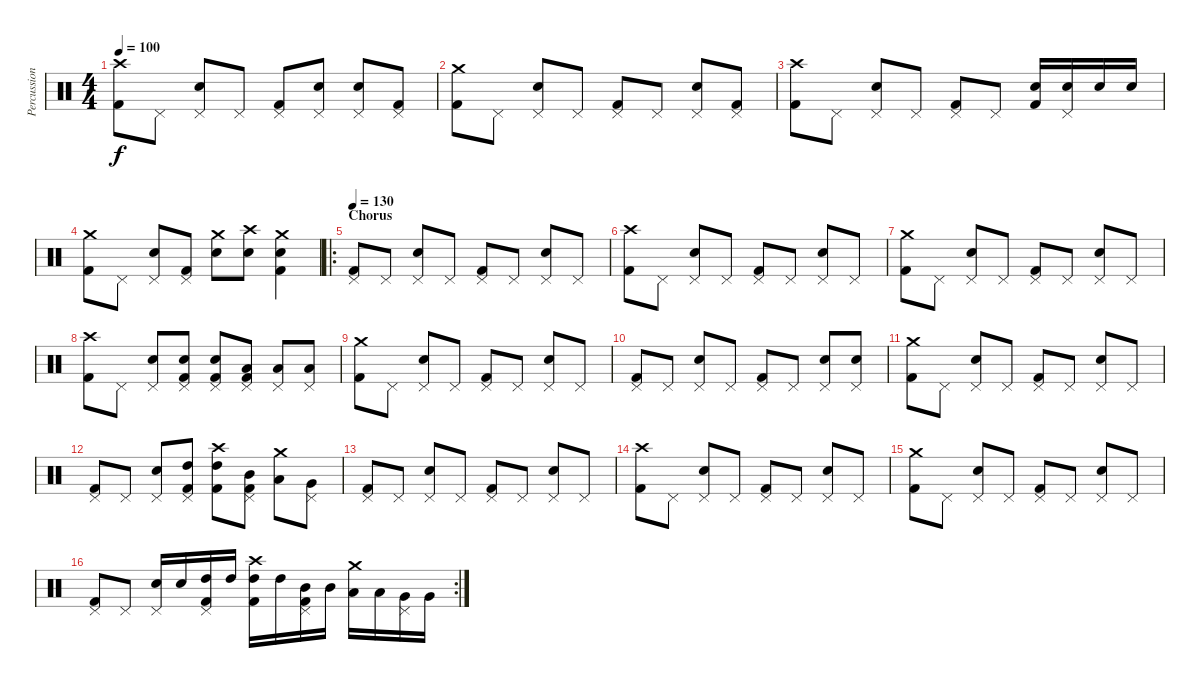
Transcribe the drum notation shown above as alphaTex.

\track ("Percussion" "Percussion") {instrument percussion}
\staff {score}
\articulation defaults
\ts (4 4)
\tempo 100
\clef neutral
\ks c
("Crash high (hit)" "Kick (hit) 2").8{dy f} "Pedal Hi-Hat (hit)".8 ("Pedal Hi-Hat (hit)" "Snare (hit) 2").8 "Pedal Hi-Hat (hit)".8 ("Pedal Hi-Hat (hit)" "Kick (hit) 2").8 ("Pedal Hi-Hat (hit)" "Snare (hit) 2").8 ("Pedal Hi-Hat (hit)" "Snare (hit) 2").8 ("Pedal Hi-Hat (hit)" "Kick (hit) 2").8 |
("Crash medium (hit)" "Kick (hit) 2").8 "Pedal Hi-Hat (hit)".8 ("Pedal Hi-Hat (hit)" "Snare (hit) 2").8 "Pedal Hi-Hat (hit)".8 ("Pedal Hi-Hat (hit)" "Kick (hit) 2").8 "Pedal Hi-Hat (hit)".8 ("Pedal Hi-Hat (hit)" "Snare (hit) 2").8 ("Pedal Hi-Hat (hit)" "Kick (hit) 2").8 |
("Crash high (hit)" "Kick (hit) 2").8 "Pedal Hi-Hat (hit)".8 ("Pedal Hi-Hat (hit)" "Snare (hit) 2").8 "Pedal Hi-Hat (hit)".8 ("Pedal Hi-Hat (hit)" "Kick (hit) 2").8 "Pedal Hi-Hat (hit)".8 ("Snare (hit) 2" "Kick (hit) 2").16 ("Pedal Hi-Hat (hit)" "Snare (hit) 2").16 "Snare (hit) 2".16 "Snare (hit) 2".16 |
("Crash medium (hit)" "Kick (hit) 2").8 "Pedal Hi-Hat (hit)".8 ("Pedal Hi-Hat (hit)" "Snare (hit) 2").8 ("Pedal Hi-Hat (hit)" "Kick (hit) 2").8 ("Crash medium (hit)" "Snare (hit) 2").8 ("Crash high (hit)" "Snare (hit) 2").8 ("Crash medium (hit)" "Snare (hit) 2" "Kick (hit) 2").4 |
\ro
\section ("" "Chorus")
\tempo 130
("Pedal Hi-Hat (hit)" "Kick (hit) 2").8 "Pedal Hi-Hat (hit)".8 ("Pedal Hi-Hat (hit)" "Snare (hit) 2").8 "Pedal Hi-Hat (hit)".8 ("Pedal Hi-Hat (hit)" "Kick (hit) 2").8 "Pedal Hi-Hat (hit)".8 ("Pedal Hi-Hat (hit)" "Snare (hit) 2").8 "Pedal Hi-Hat (hit)".8 |
("Crash high (hit)" "Kick (hit) 2").8 "Pedal Hi-Hat (hit)".8 ("Pedal Hi-Hat (hit)" "Snare (hit) 2").8 "Pedal Hi-Hat (hit)".8 ("Pedal Hi-Hat (hit)" "Kick (hit) 2").8 "Pedal Hi-Hat (hit)".8 ("Pedal Hi-Hat (hit)" "Snare (hit) 2").8 "Pedal Hi-Hat (hit)".8 |
("Crash medium (hit)" "Kick (hit) 2").8 "Pedal Hi-Hat (hit)".8 ("Pedal Hi-Hat (hit)" "Snare (hit) 2").8 "Pedal Hi-Hat (hit)".8 ("Pedal Hi-Hat (hit)" "Kick (hit) 2").8 "Pedal Hi-Hat (hit)".8 ("Pedal Hi-Hat (hit)" "Snare (hit) 2").8 "Pedal Hi-Hat (hit)".8 |
("Crash high (hit)" "Kick (hit) 2").8 "Pedal Hi-Hat (hit)".8 ("Pedal Hi-Hat (hit)" "Snare (hit) 2").8 ("Pedal Hi-Hat (hit)" "Snare (hit) 2" "Kick (hit) 2").8 ("Pedal Hi-Hat (hit)" "Snare (hit) 2" "Kick (hit) 2").8 ("Pedal Hi-Hat (hit)" "Low Tom (hit)" "Kick (hit) 2").8 ("Pedal Hi-Hat (hit)" "Low Tom (hit)").8 ("Pedal Hi-Hat (hit)" "Low Tom (hit)").8 |
("Crash medium (hit)" "Kick (hit) 2").8 "Pedal Hi-Hat (hit)".8 ("Pedal Hi-Hat (hit)" "Snare (hit) 2").8 "Pedal Hi-Hat (hit)".8 ("Pedal Hi-Hat (hit)" "Kick (hit) 2").8 "Pedal Hi-Hat (hit)".8 ("Pedal Hi-Hat (hit)" "Snare (hit) 2").8 "Pedal Hi-Hat (hit)".8 |
("Pedal Hi-Hat (hit)" "Kick (hit) 2").8 "Pedal Hi-Hat (hit)".8 ("Pedal Hi-Hat (hit)" "Snare (hit) 2").8 "Pedal Hi-Hat (hit)".8 ("Pedal Hi-Hat (hit)" "Kick (hit) 2").8 "Pedal Hi-Hat (hit)".8 ("Pedal Hi-Hat (hit)" "Snare (hit) 2").8 ("Pedal Hi-Hat (hit)" "Snare (hit) 2").8 |
("Crash medium (hit)" "Kick (hit) 2").8 "Pedal Hi-Hat (hit)".8 ("Pedal Hi-Hat (hit)" "Snare (hit) 2").8 "Pedal Hi-Hat (hit)".8 ("Pedal Hi-Hat (hit)" "Kick (hit) 2").8 "Pedal Hi-Hat (hit)".8 ("Pedal Hi-Hat (hit)" "Snare (hit) 2").8 "Pedal Hi-Hat (hit)".8 |
("Pedal Hi-Hat (hit)" "Kick (hit) 2").8 "Pedal Hi-Hat (hit)".8 ("Pedal Hi-Hat (hit)" "Snare (hit) 2").8 ("Pedal Hi-Hat (hit)" "High Tom (hit)" "Kick (hit) 2").8 ("Crash high (hit)" "High Tom (hit)" "Kick (hit) 2").8 ("Pedal Hi-Hat (hit)" "Mid Tom (hit)" "Kick (hit) 2").8 ("Crash medium (hit)" "Low Tom (hit)").8 ("Pedal Hi-Hat (hit)" "Very Low Tom (hit)").8 |
("Pedal Hi-Hat (hit)" "Kick (hit) 2").8 "Pedal Hi-Hat (hit)".8 ("Pedal Hi-Hat (hit)" "Snare (hit) 2").8 "Pedal Hi-Hat (hit)".8 ("Pedal Hi-Hat (hit)" "Kick (hit) 2").8 "Pedal Hi-Hat (hit)".8 ("Pedal Hi-Hat (hit)" "Snare (hit) 2").8 "Pedal Hi-Hat (hit)".8 |
("Crash high (hit)" "Kick (hit) 2").8 "Pedal Hi-Hat (hit)".8 ("Pedal Hi-Hat (hit)" "Snare (hit) 2").8 "Pedal Hi-Hat (hit)".8 ("Pedal Hi-Hat (hit)" "Kick (hit) 2").8 "Pedal Hi-Hat (hit)".8 ("Pedal Hi-Hat (hit)" "Snare (hit) 2").8 "Pedal Hi-Hat (hit)".8 |
("Crash medium (hit)" "Kick (hit) 2").8 "Pedal Hi-Hat (hit)".8 ("Pedal Hi-Hat (hit)" "Snare (hit) 2").8 "Pedal Hi-Hat (hit)".8 ("Pedal Hi-Hat (hit)" "Kick (hit) 2").8 "Pedal Hi-Hat (hit)".8 ("Pedal Hi-Hat (hit)" "Snare (hit) 2").8 "Pedal Hi-Hat (hit)".8 |
\rc 2
("Pedal Hi-Hat (hit)" "Kick (hit) 2").8 "Pedal Hi-Hat (hit)".8 ("Pedal Hi-Hat (hit)" "Snare (hit) 2").16 "Snare (hit) 2".16 ("Pedal Hi-Hat (hit)" "High Tom (hit)" "Kick (hit) 2").16 "High Tom (hit)".16 ("Crash high (hit)" "High Tom (hit)" "Kick (hit) 2").16 "High Tom (hit)".16 ("Pedal Hi-Hat (hit)" "Mid Tom (hit)" "Kick (hit) 2").16 "Mid Tom (hit)".16 ("Crash medium (hit)" "Low Tom (hit)").16 "Low Tom (hit)".16 ("Pedal Hi-Hat (hit)" "Very Low Tom (hit)").16 "Very Low Tom (hit)".16
